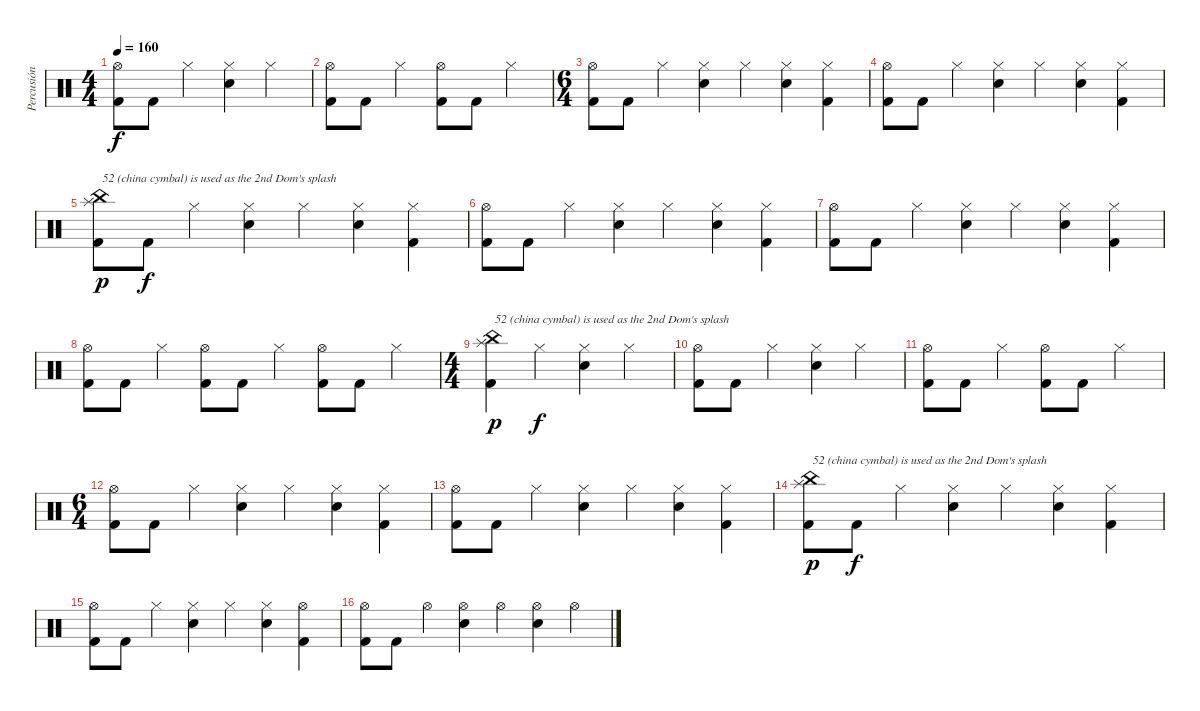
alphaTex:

\track ("Percusión" "Percusión") {instrument percussion}
\staff {score}
\articulation defaults
\ts (4 4)
\tempo 160
\clef neutral
\ks c
("Hi-Hat (open)" "Kick (hit) 2").8{dy f} "Kick (hit) 2".8 "Hi-Hat (closed)".4 ("Hi-Hat (closed)" "Snare (hit) 2").4 "Hi-Hat (closed)".4 |
("Hi-Hat (open)" "Kick (hit) 2").8 "Kick (hit) 2".8 "Hi-Hat (closed)".4 ("Hi-Hat (open)" "Kick (hit) 2").8 "Kick (hit) 2".8 "Hi-Hat (closed)".4 |
\ts (6 4)
("Hi-Hat (open)" "Kick (hit) 2").8 "Kick (hit) 2".8 "Hi-Hat (closed)".4 ("Hi-Hat (closed)" "Snare (hit) 2").4 "Hi-Hat (closed)".4 ("Hi-Hat (closed)" "Snare (hit) 2").4 ("Hi-Hat (closed)" "Kick (hit) 2").4 |
("Hi-Hat (open)" "Kick (hit) 2").8 "Kick (hit) 2".8 "Hi-Hat (closed)".4 ("Hi-Hat (closed)" "Snare (hit) 2").4 "Hi-Hat (closed)".4 ("Hi-Hat (closed)" "Snare (hit) 2").4 ("Hi-Hat (closed)" "Kick (hit) 2").4 |
("Splash (hit)" "China (hit)" "Kick (hit) 2").8{txt "52 (china cymbal) is used as the 2nd Dom's splash" dy p} "Kick (hit) 2".8{dy f} "Hi-Hat (closed)".4 ("Hi-Hat (closed)" "Snare (hit) 2").4 "Hi-Hat (closed)".4 ("Hi-Hat (closed)" "Snare (hit) 2").4 ("Hi-Hat (closed)" "Kick (hit) 2").4 |
("Hi-Hat (open)" "Kick (hit) 2").8 "Kick (hit) 2".8 "Hi-Hat (closed)".4 ("Hi-Hat (closed)" "Snare (hit) 2").4 "Hi-Hat (closed)".4 ("Hi-Hat (closed)" "Snare (hit) 2").4 ("Hi-Hat (closed)" "Kick (hit) 2").4 |
("Hi-Hat (open)" "Kick (hit) 2").8 "Kick (hit) 2".8 "Hi-Hat (closed)".4 ("Hi-Hat (closed)" "Snare (hit) 2").4 "Hi-Hat (closed)".4 ("Hi-Hat (closed)" "Snare (hit) 2").4 ("Hi-Hat (closed)" "Kick (hit) 2").4 |
("Hi-Hat (open)" "Kick (hit) 2").8 "Kick (hit) 2".8 "Hi-Hat (closed)".4 ("Hi-Hat (open)" "Kick (hit) 2").8 "Kick (hit) 2".8 "Hi-Hat (closed)".4 ("Hi-Hat (open)" "Kick (hit) 2").8 "Kick (hit) 2".8 "Hi-Hat (closed)".4 |
\ts (4 4)
("Splash (hit)" "China (hit)" "Kick (hit) 2").4{txt "52 (china cymbal) is used as the 2nd Dom's splash" dy p} "Hi-Hat (closed)".4{dy f} ("Hi-Hat (closed)" "Snare (hit) 2").4 "Hi-Hat (closed)".4 |
("Hi-Hat (open)" "Kick (hit) 2").8 "Kick (hit) 2".8 "Hi-Hat (closed)".4 ("Hi-Hat (closed)" "Snare (hit) 2").4 "Hi-Hat (closed)".4 |
("Hi-Hat (open)" "Kick (hit) 2").8 "Kick (hit) 2".8 "Hi-Hat (closed)".4 ("Hi-Hat (open)" "Kick (hit) 2").8 "Kick (hit) 2".8 "Hi-Hat (closed)".4 |
\ts (6 4)
("Hi-Hat (open)" "Kick (hit) 2").8 "Kick (hit) 2".8 "Hi-Hat (closed)".4 ("Hi-Hat (closed)" "Snare (hit) 2").4 "Hi-Hat (closed)".4 ("Hi-Hat (closed)" "Snare (hit) 2").4 ("Hi-Hat (closed)" "Kick (hit) 2").4 |
("Hi-Hat (open)" "Kick (hit) 2").8 "Kick (hit) 2".8 "Hi-Hat (closed)".4 ("Hi-Hat (closed)" "Snare (hit) 2").4 "Hi-Hat (closed)".4 ("Hi-Hat (closed)" "Snare (hit) 2").4 ("Hi-Hat (closed)" "Kick (hit) 2").4 |
("Splash (hit)" "China (hit)" "Kick (hit) 2").8{txt "52 (china cymbal) is used as the 2nd Dom's splash" dy p} "Kick (hit) 2".8{dy f} "Hi-Hat (closed)".4 ("Hi-Hat (closed)" "Snare (hit) 2").4 "Hi-Hat (closed)".4 ("Hi-Hat (closed)" "Snare (hit) 2").4 ("Hi-Hat (closed)" "Kick (hit) 2").4 |
("Hi-Hat (open)" "Kick (hit) 2").8 "Kick (hit) 2".8 "Hi-Hat (closed)".4 ("Hi-Hat (closed)" "Snare (hit) 2").4 "Hi-Hat (closed)".4 ("Hi-Hat (closed)" "Snare (hit) 2").4 ("Hi-Hat (open)" "Kick (hit) 2").4 |
("Hi-Hat (open)" "Kick (hit) 2").8 "Kick (hit) 2".8 "Hi-Hat (open)".4 ("Hi-Hat (open)" "Snare (hit) 2").4 "Hi-Hat (open)".4 ("Hi-Hat (open)" "Snare (hit) 2").4 "Hi-Hat (open)".4
